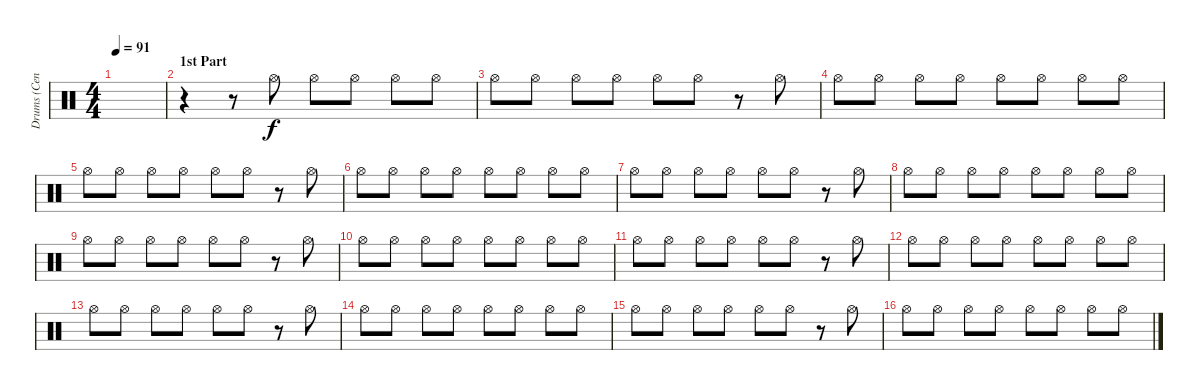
\track ("Drums (Cenk)" "Drums (Cen") {instrument percussion}
\staff {score}
\articulation defaults
\ts (4 4)
\tempo 91
\clef neutral
\ks c
|
\section ("" "1st Part")
r.4 r.8 "Hi-Hat (open)".8 "Hi-Hat (open)".8 "Hi-Hat (open)".8 "Hi-Hat (open)".8 "Hi-Hat (open)".8 |
"Hi-Hat (open)".8 "Hi-Hat (open)".8 "Hi-Hat (open)".8 "Hi-Hat (open)".8 "Hi-Hat (open)".8 "Hi-Hat (open)".8 r.8 "Hi-Hat (open)".8 |
"Hi-Hat (open)".8 "Hi-Hat (open)".8 "Hi-Hat (open)".8 "Hi-Hat (open)".8 "Hi-Hat (open)".8 "Hi-Hat (open)".8 "Hi-Hat (open)".8 "Hi-Hat (open)".8 |
"Hi-Hat (open)".8 "Hi-Hat (open)".8 "Hi-Hat (open)".8 "Hi-Hat (open)".8 "Hi-Hat (open)".8 "Hi-Hat (open)".8 r.8 "Hi-Hat (open)".8 |
"Hi-Hat (open)".8 "Hi-Hat (open)".8 "Hi-Hat (open)".8 "Hi-Hat (open)".8 "Hi-Hat (open)".8 "Hi-Hat (open)".8 "Hi-Hat (open)".8 "Hi-Hat (open)".8 |
"Hi-Hat (open)".8 "Hi-Hat (open)".8 "Hi-Hat (open)".8 "Hi-Hat (open)".8 "Hi-Hat (open)".8 "Hi-Hat (open)".8 r.8 "Hi-Hat (open)".8 |
"Hi-Hat (open)".8 "Hi-Hat (open)".8 "Hi-Hat (open)".8 "Hi-Hat (open)".8 "Hi-Hat (open)".8 "Hi-Hat (open)".8 "Hi-Hat (open)".8 "Hi-Hat (open)".8 |
"Hi-Hat (open)".8 "Hi-Hat (open)".8 "Hi-Hat (open)".8 "Hi-Hat (open)".8 "Hi-Hat (open)".8 "Hi-Hat (open)".8 r.8 "Hi-Hat (open)".8 |
"Hi-Hat (open)".8 "Hi-Hat (open)".8 "Hi-Hat (open)".8 "Hi-Hat (open)".8 "Hi-Hat (open)".8 "Hi-Hat (open)".8 "Hi-Hat (open)".8 "Hi-Hat (open)".8 |
"Hi-Hat (open)".8 "Hi-Hat (open)".8 "Hi-Hat (open)".8 "Hi-Hat (open)".8 "Hi-Hat (open)".8 "Hi-Hat (open)".8 r.8 "Hi-Hat (open)".8 |
"Hi-Hat (open)".8 "Hi-Hat (open)".8 "Hi-Hat (open)".8 "Hi-Hat (open)".8 "Hi-Hat (open)".8 "Hi-Hat (open)".8 "Hi-Hat (open)".8 "Hi-Hat (open)".8 |
"Hi-Hat (open)".8 "Hi-Hat (open)".8 "Hi-Hat (open)".8 "Hi-Hat (open)".8 "Hi-Hat (open)".8 "Hi-Hat (open)".8 r.8 "Hi-Hat (open)".8 |
"Hi-Hat (open)".8 "Hi-Hat (open)".8 "Hi-Hat (open)".8 "Hi-Hat (open)".8 "Hi-Hat (open)".8 "Hi-Hat (open)".8 "Hi-Hat (open)".8 "Hi-Hat (open)".8 |
"Hi-Hat (open)".8 "Hi-Hat (open)".8 "Hi-Hat (open)".8 "Hi-Hat (open)".8 "Hi-Hat (open)".8 "Hi-Hat (open)".8 r.8 "Hi-Hat (open)".8 |
"Hi-Hat (open)".8 "Hi-Hat (open)".8 "Hi-Hat (open)".8 "Hi-Hat (open)".8 "Hi-Hat (open)".8 "Hi-Hat (open)".8 "Hi-Hat (open)".8 "Hi-Hat (open)".8
